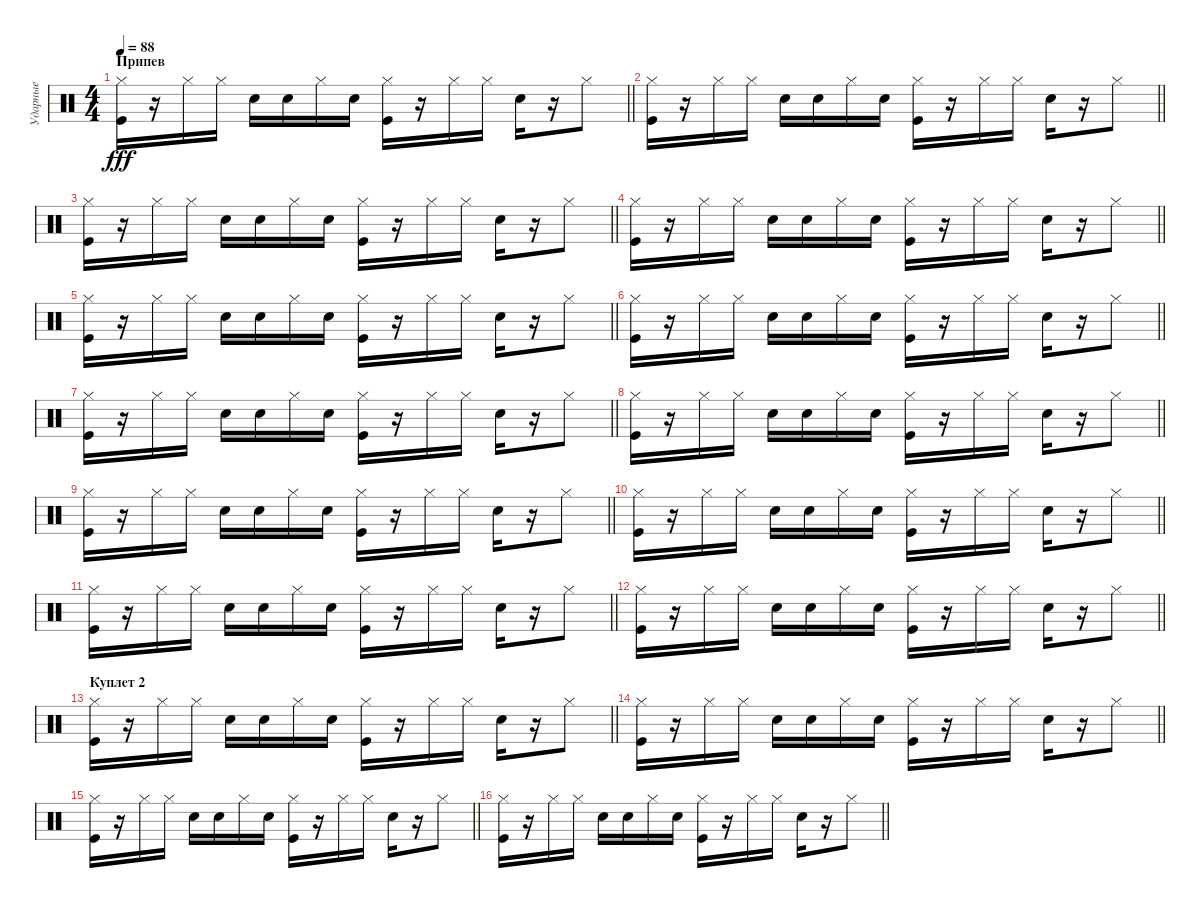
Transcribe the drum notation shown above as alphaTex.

\track ("Ударные" "Ударные") {solo instrument percussion}
\staff {score}
\articulation defaults
\ts (4 4)
\section ("" "Припев")
\tempo 88
\clef neutral
\barLineRight lightlight
\ks aminor
("Hi-Hat (closed)" "Kick (hit)").16{dy fff} r.16 "Hi-Hat (closed)".16 "Hi-Hat (closed)".16 "Snare (hit) 2".16 "Snare (hit) 2".16 "Hi-Hat (closed)".16 "Snare (hit) 2".16 ("Hi-Hat (closed)" "Kick (hit)").16 r.16 "Hi-Hat (closed)".16 "Hi-Hat (closed)".16 "Snare (hit) 2".16 r.16 "Hi-Hat (closed)".8 |
\barLineRight lightlight
("Hi-Hat (closed)" "Kick (hit)").16 r.16 "Hi-Hat (closed)".16 "Hi-Hat (closed)".16 "Snare (hit) 2".16 "Snare (hit) 2".16 "Hi-Hat (closed)".16 "Snare (hit) 2".16 ("Hi-Hat (closed)" "Kick (hit)").16 r.16 "Hi-Hat (closed)".16 "Hi-Hat (closed)".16 "Snare (hit) 2".16 r.16 "Hi-Hat (closed)".8 |
\barLineRight lightlight
("Hi-Hat (closed)" "Kick (hit)").16 r.16 "Hi-Hat (closed)".16 "Hi-Hat (closed)".16 "Snare (hit) 2".16 "Snare (hit) 2".16 "Hi-Hat (closed)".16 "Snare (hit) 2".16 ("Hi-Hat (closed)" "Kick (hit)").16 r.16 "Hi-Hat (closed)".16 "Hi-Hat (closed)".16 "Snare (hit) 2".16 r.16 "Hi-Hat (closed)".8 |
\barLineRight lightlight
("Hi-Hat (closed)" "Kick (hit)").16 r.16 "Hi-Hat (closed)".16 "Hi-Hat (closed)".16 "Snare (hit) 2".16 "Snare (hit) 2".16 "Hi-Hat (closed)".16 "Snare (hit) 2".16 ("Hi-Hat (closed)" "Kick (hit)").16 r.16 "Hi-Hat (closed)".16 "Hi-Hat (closed)".16 "Snare (hit) 2".16 r.16 "Hi-Hat (closed)".8 |
\barLineRight lightlight
("Hi-Hat (closed)" "Kick (hit)").16 r.16 "Hi-Hat (closed)".16 "Hi-Hat (closed)".16 "Snare (hit) 2".16 "Snare (hit) 2".16 "Hi-Hat (closed)".16 "Snare (hit) 2".16 ("Hi-Hat (closed)" "Kick (hit)").16 r.16 "Hi-Hat (closed)".16 "Hi-Hat (closed)".16 "Snare (hit) 2".16 r.16 "Hi-Hat (closed)".8 |
\barLineRight lightlight
("Hi-Hat (closed)" "Kick (hit)").16 r.16 "Hi-Hat (closed)".16 "Hi-Hat (closed)".16 "Snare (hit) 2".16 "Snare (hit) 2".16 "Hi-Hat (closed)".16 "Snare (hit) 2".16 ("Hi-Hat (closed)" "Kick (hit)").16 r.16 "Hi-Hat (closed)".16 "Hi-Hat (closed)".16 "Snare (hit) 2".16 r.16 "Hi-Hat (closed)".8 |
\barLineRight lightlight
("Hi-Hat (closed)" "Kick (hit)").16 r.16 "Hi-Hat (closed)".16 "Hi-Hat (closed)".16 "Snare (hit) 2".16 "Snare (hit) 2".16 "Hi-Hat (closed)".16 "Snare (hit) 2".16 ("Hi-Hat (closed)" "Kick (hit)").16 r.16 "Hi-Hat (closed)".16 "Hi-Hat (closed)".16 "Snare (hit) 2".16 r.16 "Hi-Hat (closed)".8 |
\barLineRight lightlight
("Hi-Hat (closed)" "Kick (hit)").16 r.16 "Hi-Hat (closed)".16 "Hi-Hat (closed)".16 "Snare (hit) 2".16 "Snare (hit) 2".16 "Hi-Hat (closed)".16 "Snare (hit) 2".16 ("Hi-Hat (closed)" "Kick (hit)").16 r.16 "Hi-Hat (closed)".16 "Hi-Hat (closed)".16 "Snare (hit) 2".16 r.16 "Hi-Hat (closed)".8 |
\barLineRight lightlight
("Hi-Hat (closed)" "Kick (hit)").16 r.16 "Hi-Hat (closed)".16 "Hi-Hat (closed)".16 "Snare (hit) 2".16 "Snare (hit) 2".16 "Hi-Hat (closed)".16 "Snare (hit) 2".16 ("Hi-Hat (closed)" "Kick (hit)").16 r.16 "Hi-Hat (closed)".16 "Hi-Hat (closed)".16 "Snare (hit) 2".16 r.16 "Hi-Hat (closed)".8 |
\barLineRight lightlight
("Hi-Hat (closed)" "Kick (hit)").16 r.16 "Hi-Hat (closed)".16 "Hi-Hat (closed)".16 "Snare (hit) 2".16 "Snare (hit) 2".16 "Hi-Hat (closed)".16 "Snare (hit) 2".16 ("Hi-Hat (closed)" "Kick (hit)").16 r.16 "Hi-Hat (closed)".16 "Hi-Hat (closed)".16 "Snare (hit) 2".16 r.16 "Hi-Hat (closed)".8 |
\barLineRight lightlight
("Hi-Hat (closed)" "Kick (hit)").16 r.16 "Hi-Hat (closed)".16 "Hi-Hat (closed)".16 "Snare (hit) 2".16 "Snare (hit) 2".16 "Hi-Hat (closed)".16 "Snare (hit) 2".16 ("Hi-Hat (closed)" "Kick (hit)").16 r.16 "Hi-Hat (closed)".16 "Hi-Hat (closed)".16 "Snare (hit) 2".16 r.16 "Hi-Hat (closed)".8 |
\barLineRight lightlight
("Hi-Hat (closed)" "Kick (hit)").16 r.16 "Hi-Hat (closed)".16 "Hi-Hat (closed)".16 "Snare (hit) 2".16 "Snare (hit) 2".16 "Hi-Hat (closed)".16 "Snare (hit) 2".16 ("Hi-Hat (closed)" "Kick (hit)").16 r.16 "Hi-Hat (closed)".16 "Hi-Hat (closed)".16 "Snare (hit) 2".16 r.16 "Hi-Hat (closed)".8 |
\section ("" "Куплет 2")
\barLineRight lightlight
("Hi-Hat (closed)" "Kick (hit)").16 r.16 "Hi-Hat (closed)".16 "Hi-Hat (closed)".16 "Snare (hit) 2".16 "Snare (hit) 2".16 "Hi-Hat (closed)".16 "Snare (hit) 2".16 ("Hi-Hat (closed)" "Kick (hit)").16 r.16 "Hi-Hat (closed)".16 "Hi-Hat (closed)".16 "Snare (hit) 2".16 r.16 "Hi-Hat (closed)".8 |
\barLineRight lightlight
("Hi-Hat (closed)" "Kick (hit)").16 r.16 "Hi-Hat (closed)".16 "Hi-Hat (closed)".16 "Snare (hit) 2".16 "Snare (hit) 2".16 "Hi-Hat (closed)".16 "Snare (hit) 2".16 ("Hi-Hat (closed)" "Kick (hit)").16 r.16 "Hi-Hat (closed)".16 "Hi-Hat (closed)".16 "Snare (hit) 2".16 r.16 "Hi-Hat (closed)".8 |
\barLineRight lightlight
("Hi-Hat (closed)" "Kick (hit)").16 r.16 "Hi-Hat (closed)".16 "Hi-Hat (closed)".16 "Snare (hit) 2".16 "Snare (hit) 2".16 "Hi-Hat (closed)".16 "Snare (hit) 2".16 ("Hi-Hat (closed)" "Kick (hit)").16 r.16 "Hi-Hat (closed)".16 "Hi-Hat (closed)".16 "Snare (hit) 2".16 r.16 "Hi-Hat (closed)".8 |
\barLineRight lightlight
("Hi-Hat (closed)" "Kick (hit)").16 r.16 "Hi-Hat (closed)".16 "Hi-Hat (closed)".16 "Snare (hit) 2".16 "Snare (hit) 2".16 "Hi-Hat (closed)".16 "Snare (hit) 2".16 ("Hi-Hat (closed)" "Kick (hit)").16 r.16 "Hi-Hat (closed)".16 "Hi-Hat (closed)".16 "Snare (hit) 2".16 r.16 "Hi-Hat (closed)".8
